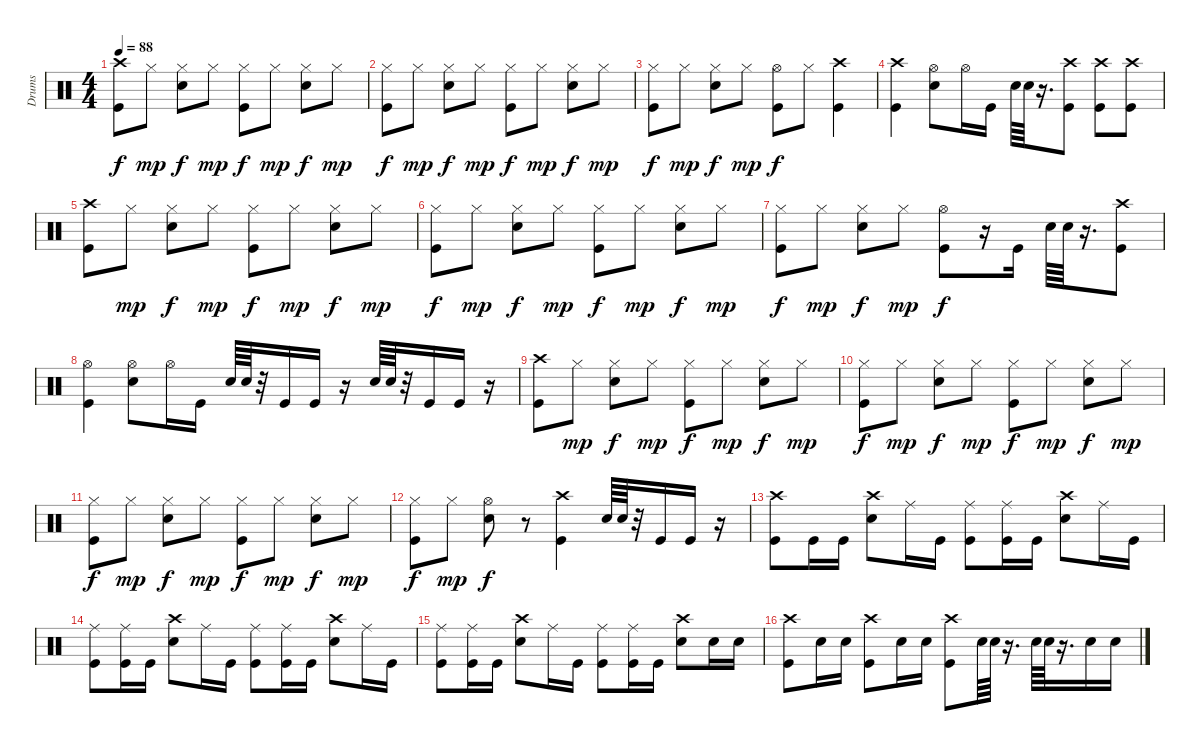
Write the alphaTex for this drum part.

\track ("Drums" "Drums") {instrument percussion}
\staff {score}
\articulation defaults
\ts (4 4)
\tempo 88
\clef neutral
\ks c
("Crash high (hit)" "Kick (hit)").8{dy f} "Hi-Hat (closed)".8{dy mp} ("Hi-Hat (closed)" "Snare (hit) 2").8{dy f} "Hi-Hat (closed)".8{dy mp} ("Hi-Hat (closed)" "Kick (hit)").8{dy f} "Hi-Hat (closed)".8{dy mp} ("Hi-Hat (closed)" "Snare (hit) 2").8{dy f} "Hi-Hat (closed)".8{dy mp} |
("Hi-Hat (closed)" "Kick (hit)").8{dy f} "Hi-Hat (closed)".8{dy mp} ("Hi-Hat (closed)" "Snare (hit) 2").8{dy f} "Hi-Hat (closed)".8{dy mp} ("Hi-Hat (closed)" "Kick (hit)").8{dy f} "Hi-Hat (closed)".8{dy mp} ("Hi-Hat (closed)" "Snare (hit) 2").8{dy f} "Hi-Hat (closed)".8{dy mp} |
("Hi-Hat (closed)" "Kick (hit)").8{dy f} "Hi-Hat (closed)".8{dy mp} ("Hi-Hat (closed)" "Snare (hit) 2").8{dy f} "Hi-Hat (closed)".8{dy mp} ("Hi-Hat (open)" "Kick (hit)").8{dy f} "Hi-Hat (closed)".8 ("Crash high (hit)" "Kick (hit)").4 |
("Crash high (hit)" "Kick (hit)").4 ("Hi-Hat (open)" "Snare (hit) 2").8 "Hi-Hat (open)".16 "Kick (hit)".16 "Snare (hit) 2".64 "Snare (hit) 2".64 r.16{d} ("Crash high (hit)" "Kick (hit)").8 ("Crash high (hit)" "Kick (hit)").8 ("Crash high (hit)" "Kick (hit)").8 |
("Crash high (hit)" "Kick (hit)").8 "Hi-Hat (closed)".8{dy mp} ("Hi-Hat (closed)" "Snare (hit) 2").8{dy f} "Hi-Hat (closed)".8{dy mp} ("Hi-Hat (closed)" "Kick (hit)").8{dy f} "Hi-Hat (closed)".8{dy mp} ("Hi-Hat (closed)" "Snare (hit) 2").8{dy f} "Hi-Hat (closed)".8{dy mp} |
("Hi-Hat (closed)" "Kick (hit)").8{dy f} "Hi-Hat (closed)".8{dy mp} ("Hi-Hat (closed)" "Snare (hit) 2").8{dy f} "Hi-Hat (closed)".8{dy mp} ("Hi-Hat (closed)" "Kick (hit)").8{dy f} "Hi-Hat (closed)".8{dy mp} ("Hi-Hat (closed)" "Snare (hit) 2").8{dy f} "Hi-Hat (closed)".8{dy mp} |
("Hi-Hat (closed)" "Kick (hit)").8{dy f} "Hi-Hat (closed)".8{dy mp} ("Hi-Hat (closed)" "Snare (hit) 2").8{dy f} "Hi-Hat (closed)".8{dy mp} ("Hi-Hat (open)" "Kick (hit)").8{dy f} r.16 "Kick (hit)".16 "Snare (hit) 2".64 "Snare (hit) 2".64 r.16{d} ("Crash high (hit)" "Kick (hit)").8 |
("Hi-Hat (open)" "Kick (hit)").4 ("Hi-Hat (open)" "Snare (hit) 2").8 "Hi-Hat (open)".16 "Kick (hit)".16 "Snare (hit) 2".64 "Snare (hit) 2".64 r.32 "Kick (hit)".16 "Kick (hit)".16 r.16 "Snare (hit) 2".64 "Snare (hit) 2".64 r.32 "Kick (hit)".16 "Kick (hit)".16 r.16 |
("Crash high (hit)" "Kick (hit)").8 "Hi-Hat (closed)".8{dy mp} ("Hi-Hat (closed)" "Snare (hit) 2").8{dy f} "Hi-Hat (closed)".8{dy mp} ("Hi-Hat (closed)" "Kick (hit)").8{dy f} "Hi-Hat (closed)".8{dy mp} ("Hi-Hat (closed)" "Snare (hit) 2").8{dy f} "Hi-Hat (closed)".8{dy mp} |
("Hi-Hat (closed)" "Kick (hit)").8{dy f} "Hi-Hat (closed)".8{dy mp} ("Hi-Hat (closed)" "Snare (hit) 2").8{dy f} "Hi-Hat (closed)".8{dy mp} ("Hi-Hat (closed)" "Kick (hit)").8{dy f} "Hi-Hat (closed)".8{dy mp} ("Hi-Hat (closed)" "Snare (hit) 2").8{dy f} "Hi-Hat (closed)".8{dy mp} |
("Hi-Hat (closed)" "Kick (hit)").8{dy f} "Hi-Hat (closed)".8{dy mp} ("Hi-Hat (closed)" "Snare (hit) 2").8{dy f} "Hi-Hat (closed)".8{dy mp} ("Hi-Hat (closed)" "Kick (hit)").8{dy f} "Hi-Hat (closed)".8{dy mp} ("Hi-Hat (closed)" "Snare (hit) 2").8{dy f} "Hi-Hat (closed)".8{dy mp} |
("Hi-Hat (closed)" "Kick (hit)").8{dy f} "Hi-Hat (closed)".8{dy mp} ("Hi-Hat (open)" "Snare (hit) 2").8{dy f} r.8 ("Crash high (hit)" "Kick (hit)").4 "Snare (hit) 2".64 "Snare (hit) 2".64 r.32 "Kick (hit)".16 "Kick (hit)".16 r.16 |
("Crash high (hit)" "Kick (hit)").8 "Kick (hit)".16 "Kick (hit)".16 ("Crash high (hit)" "Snare (hit) 2").8 "Ride (middle)".16 "Kick (hit)".16 ("Ride (middle)" "Kick (hit)").8 ("Ride (middle)" "Kick (hit)").16 "Kick (hit)".16 ("Crash high (hit)" "Snare (hit) 2").8 "Ride (middle)".16 "Kick (hit)".16 |
("Ride (middle)" "Kick (hit)").8 ("Ride (middle)" "Kick (hit)").16 "Kick (hit)".16 ("Crash high (hit)" "Snare (hit) 2").8 "Ride (middle)".16 "Kick (hit)".16 ("Ride (middle)" "Kick (hit)").8 ("Ride (middle)" "Kick (hit)").16 "Kick (hit)".16 ("Crash high (hit)" "Snare (hit) 2").8 "Ride (middle)".16 "Kick (hit)".16 |
("Ride (middle)" "Kick (hit)").8 ("Ride (middle)" "Kick (hit)").16 "Kick (hit)".16 ("Crash high (hit)" "Snare (hit) 2").8 "Ride (middle)".16 "Kick (hit)".16 ("Ride (middle)" "Kick (hit)").8 ("Ride (middle)" "Kick (hit)").16 "Kick (hit)".16 ("Crash high (hit)" "Snare (hit) 2").8 "Snare (hit) 2".16 "Snare (hit) 2".16 |
("Crash high (hit)" "Kick (hit)").8 "Snare (hit) 2".16 "Snare (hit) 2".16 ("Crash high (hit)" "Kick (hit)").8 "Snare (hit) 2".16 "Snare (hit) 2".16 ("Crash high (hit)" "Kick (hit)").8 "Snare (hit) 2".64 "Snare (hit) 2".64 r.16{d} "Snare (hit) 2".64 "Snare (hit) 2".64 r.16{d} "Snare (hit) 2".16 "Snare (hit) 2".16
